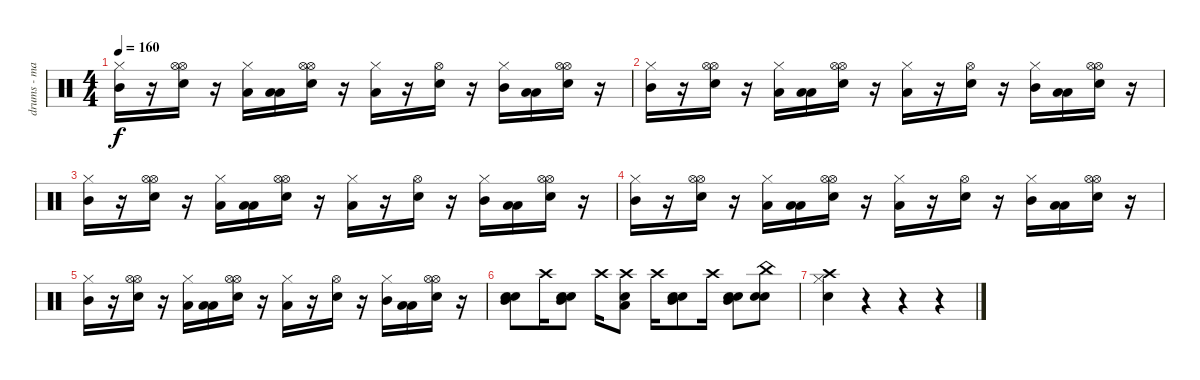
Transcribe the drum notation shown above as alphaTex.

\track ("drums - martin pelc" "drums - ma") {instrument percussion}
\staff {score}
\articulation defaults
\ts (4 4)
\tempo 160
\clef neutral
\ks c
("Hi-Hat (closed)" "Mid Tom (hit)").16{dy f} r.16 ("Snare (hit) 2" "Hi-Hat (open)" "Hi-Hat (open)").16 r.16 ("Hi-Hat (closed)" "Low Tom (hit)").16 ("Low Tom (hit)" "Low Tom (hit)").16 ("Snare (hit) 2" "Hi-Hat (open)" "Hi-Hat (open)").16 r.16 ("Hi-Hat (closed)" "Low Tom (hit)").16 r.16 ("Snare (hit) 2" "Hi-Hat (open)").16 r.16 ("Hi-Hat (closed)" "Mid Tom (hit)").16 ("Low Tom (hit)" "Low Tom (hit)").16 ("Snare (hit) 2" "Hi-Hat (open)" "Hi-Hat (open)").16 r.16 |
("Hi-Hat (closed)" "Mid Tom (hit)").16 r.16 ("Snare (hit) 2" "Hi-Hat (open)" "Hi-Hat (open)").16 r.16 ("Hi-Hat (closed)" "Low Tom (hit)").16 ("Low Tom (hit)" "Low Tom (hit)").16 ("Snare (hit) 2" "Hi-Hat (open)" "Hi-Hat (open)").16 r.16 ("Hi-Hat (closed)" "Low Tom (hit)").16 r.16 ("Snare (hit) 2" "Hi-Hat (open)").16 r.16 ("Hi-Hat (closed)" "Mid Tom (hit)").16 ("Low Tom (hit)" "Low Tom (hit)").16 ("Snare (hit) 2" "Hi-Hat (open)" "Hi-Hat (open)").16 r.16 |
("Hi-Hat (closed)" "Mid Tom (hit)").16 r.16 ("Snare (hit) 2" "Hi-Hat (open)" "Hi-Hat (open)").16 r.16 ("Hi-Hat (closed)" "Low Tom (hit)").16 ("Low Tom (hit)" "Low Tom (hit)").16 ("Snare (hit) 2" "Hi-Hat (open)" "Hi-Hat (open)").16 r.16 ("Hi-Hat (closed)" "Low Tom (hit)").16 r.16 ("Snare (hit) 2" "Hi-Hat (open)").16 r.16 ("Hi-Hat (closed)" "Mid Tom (hit)").16 ("Low Tom (hit)" "Low Tom (hit)").16 ("Snare (hit) 2" "Hi-Hat (open)" "Hi-Hat (open)").16 r.16 |
("Hi-Hat (closed)" "Mid Tom (hit)").16 r.16 ("Snare (hit) 2" "Hi-Hat (open)" "Hi-Hat (open)").16 r.16 ("Hi-Hat (closed)" "Low Tom (hit)").16 ("Low Tom (hit)" "Low Tom (hit)").16 ("Snare (hit) 2" "Hi-Hat (open)" "Hi-Hat (open)").16 r.16 ("Hi-Hat (closed)" "Low Tom (hit)").16 r.16 ("Snare (hit) 2" "Hi-Hat (open)").16 r.16 ("Hi-Hat (closed)" "Mid Tom (hit)").16 ("Low Tom (hit)" "Low Tom (hit)").16 ("Snare (hit) 2" "Hi-Hat (open)" "Hi-Hat (open)").16 r.16 |
("Hi-Hat (closed)" "Mid Tom (hit)").16 r.16 ("Snare (hit) 2" "Hi-Hat (open)" "Hi-Hat (open)").16 r.16 ("Hi-Hat (closed)" "Low Tom (hit)").16 ("Low Tom (hit)" "Low Tom (hit)").16 ("Snare (hit) 2" "Hi-Hat (open)" "Hi-Hat (open)").16 r.16 ("Hi-Hat (closed)" "Low Tom (hit)").16 r.16 ("Snare (hit) 2" "Hi-Hat (open)").16 r.16 ("Hi-Hat (closed)" "Mid Tom (hit)").16 ("Low Tom (hit)" "Low Tom (hit)").16 ("Snare (hit) 2" "Hi-Hat (open)" "Hi-Hat (open)").16 r.16 |
("Snare (hit) 2" "Snare (hit) 2" "Mid Tom (hit)").8 "Crash high (hit)".16 ("Snare (hit) 2" "Snare (hit) 2" "Mid Tom (hit)").8 "Crash high (hit)".16 ("Crash high (hit)" "Snare (hit) 2" "Low Floor Tom (hit)").8 "Crash high (hit)".16 ("Snare (hit) 2" "Snare (hit) 2" "Mid Tom (hit)").8 "Crash high (hit)".16 ("Snare (hit) 2" "Snare (hit) 2" "Mid Tom (hit)").8 ("Snare (hit) 2" "Snare (hit) 2" "China (hit)").8 |
("Crash high (hit)" "Hi-Hat (closed)" "Snare (hit) 2").4 r.4 r.4 r.4
